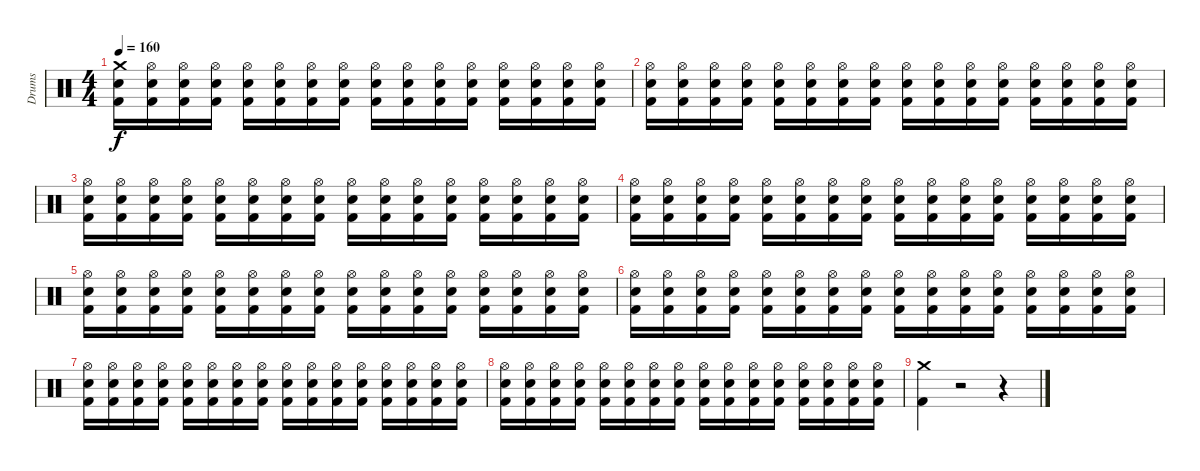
\track ("Drums" "Drums") {instrument percussion}
\staff {score}
\articulation defaults
\ts (4 4)
\tempo 160
\clef neutral
\ks c
("Crash medium (hit)" "Electric Snare (hit)" "Kick (hit) 2").16{dy f} ("Hi-Hat (open)" "Electric Snare (hit)" "Kick (hit) 2").16 ("Hi-Hat (open)" "Electric Snare (hit)" "Kick (hit) 2").16 ("Hi-Hat (open)" "Electric Snare (hit)" "Kick (hit) 2").16 ("Hi-Hat (open)" "Electric Snare (hit)" "Kick (hit) 2").16 ("Hi-Hat (open)" "Electric Snare (hit)" "Kick (hit) 2").16 ("Hi-Hat (open)" "Electric Snare (hit)" "Kick (hit) 2").16 ("Hi-Hat (open)" "Electric Snare (hit)" "Kick (hit) 2").16 ("Hi-Hat (open)" "Electric Snare (hit)" "Kick (hit) 2").16 ("Hi-Hat (open)" "Electric Snare (hit)" "Kick (hit) 2").16 ("Hi-Hat (open)" "Electric Snare (hit)" "Kick (hit) 2").16 ("Hi-Hat (open)" "Electric Snare (hit)" "Kick (hit) 2").16 ("Hi-Hat (open)" "Electric Snare (hit)" "Kick (hit) 2").16 ("Hi-Hat (open)" "Electric Snare (hit)" "Kick (hit) 2").16 ("Hi-Hat (open)" "Electric Snare (hit)" "Kick (hit) 2").16 ("Hi-Hat (open)" "Electric Snare (hit)" "Kick (hit) 2").16 |
("Hi-Hat (open)" "Electric Snare (hit)" "Kick (hit) 2").16 ("Hi-Hat (open)" "Electric Snare (hit)" "Kick (hit) 2").16 ("Hi-Hat (open)" "Electric Snare (hit)" "Kick (hit) 2").16 ("Hi-Hat (open)" "Electric Snare (hit)" "Kick (hit) 2").16 ("Hi-Hat (open)" "Electric Snare (hit)" "Kick (hit) 2").16 ("Hi-Hat (open)" "Electric Snare (hit)" "Kick (hit) 2").16 ("Hi-Hat (open)" "Electric Snare (hit)" "Kick (hit) 2").16 ("Hi-Hat (open)" "Electric Snare (hit)" "Kick (hit) 2").16 ("Hi-Hat (open)" "Electric Snare (hit)" "Kick (hit) 2").16 ("Hi-Hat (open)" "Electric Snare (hit)" "Kick (hit) 2").16 ("Hi-Hat (open)" "Electric Snare (hit)" "Kick (hit) 2").16 ("Hi-Hat (open)" "Electric Snare (hit)" "Kick (hit) 2").16 ("Hi-Hat (open)" "Electric Snare (hit)" "Kick (hit) 2").16 ("Hi-Hat (open)" "Electric Snare (hit)" "Kick (hit) 2").16 ("Hi-Hat (open)" "Electric Snare (hit)" "Kick (hit) 2").16 ("Hi-Hat (open)" "Electric Snare (hit)" "Kick (hit) 2").16 |
("Hi-Hat (open)" "Electric Snare (hit)" "Kick (hit) 2").16 ("Hi-Hat (open)" "Electric Snare (hit)" "Kick (hit) 2").16 ("Hi-Hat (open)" "Electric Snare (hit)" "Kick (hit) 2").16 ("Hi-Hat (open)" "Electric Snare (hit)" "Kick (hit) 2").16 ("Hi-Hat (open)" "Electric Snare (hit)" "Kick (hit) 2").16 ("Hi-Hat (open)" "Electric Snare (hit)" "Kick (hit) 2").16 ("Hi-Hat (open)" "Electric Snare (hit)" "Kick (hit) 2").16 ("Hi-Hat (open)" "Electric Snare (hit)" "Kick (hit) 2").16 ("Hi-Hat (open)" "Electric Snare (hit)" "Kick (hit) 2").16 ("Hi-Hat (open)" "Electric Snare (hit)" "Kick (hit) 2").16 ("Hi-Hat (open)" "Electric Snare (hit)" "Kick (hit) 2").16 ("Hi-Hat (open)" "Electric Snare (hit)" "Kick (hit) 2").16 ("Hi-Hat (open)" "Electric Snare (hit)" "Kick (hit) 2").16 ("Hi-Hat (open)" "Electric Snare (hit)" "Kick (hit) 2").16 ("Hi-Hat (open)" "Electric Snare (hit)" "Kick (hit) 2").16 ("Hi-Hat (open)" "Electric Snare (hit)" "Kick (hit) 2").16 |
("Hi-Hat (open)" "Electric Snare (hit)" "Kick (hit) 2").16 ("Hi-Hat (open)" "Electric Snare (hit)" "Kick (hit) 2").16 ("Hi-Hat (open)" "Electric Snare (hit)" "Kick (hit) 2").16 ("Hi-Hat (open)" "Electric Snare (hit)" "Kick (hit) 2").16 ("Hi-Hat (open)" "Electric Snare (hit)" "Kick (hit) 2").16 ("Hi-Hat (open)" "Electric Snare (hit)" "Kick (hit) 2").16 ("Hi-Hat (open)" "Electric Snare (hit)" "Kick (hit) 2").16 ("Hi-Hat (open)" "Electric Snare (hit)" "Kick (hit) 2").16 ("Hi-Hat (open)" "Electric Snare (hit)" "Kick (hit) 2").16 ("Hi-Hat (open)" "Electric Snare (hit)" "Kick (hit) 2").16 ("Hi-Hat (open)" "Electric Snare (hit)" "Kick (hit) 2").16 ("Hi-Hat (open)" "Electric Snare (hit)" "Kick (hit) 2").16 ("Hi-Hat (open)" "Electric Snare (hit)" "Kick (hit) 2").16 ("Hi-Hat (open)" "Electric Snare (hit)" "Kick (hit) 2").16 ("Hi-Hat (open)" "Electric Snare (hit)" "Kick (hit) 2").16 ("Hi-Hat (open)" "Electric Snare (hit)" "Kick (hit) 2").16 |
("Hi-Hat (open)" "Electric Snare (hit)" "Kick (hit) 2").16 ("Hi-Hat (open)" "Electric Snare (hit)" "Kick (hit) 2").16 ("Hi-Hat (open)" "Electric Snare (hit)" "Kick (hit) 2").16 ("Hi-Hat (open)" "Electric Snare (hit)" "Kick (hit) 2").16 ("Hi-Hat (open)" "Electric Snare (hit)" "Kick (hit) 2").16 ("Hi-Hat (open)" "Electric Snare (hit)" "Kick (hit) 2").16 ("Hi-Hat (open)" "Electric Snare (hit)" "Kick (hit) 2").16 ("Hi-Hat (open)" "Electric Snare (hit)" "Kick (hit) 2").16 ("Hi-Hat (open)" "Electric Snare (hit)" "Kick (hit) 2").16 ("Hi-Hat (open)" "Electric Snare (hit)" "Kick (hit) 2").16 ("Hi-Hat (open)" "Electric Snare (hit)" "Kick (hit) 2").16 ("Hi-Hat (open)" "Electric Snare (hit)" "Kick (hit) 2").16 ("Hi-Hat (open)" "Electric Snare (hit)" "Kick (hit) 2").16 ("Hi-Hat (open)" "Electric Snare (hit)" "Kick (hit) 2").16 ("Hi-Hat (open)" "Electric Snare (hit)" "Kick (hit) 2").16 ("Hi-Hat (open)" "Electric Snare (hit)" "Kick (hit) 2").16 |
("Hi-Hat (open)" "Electric Snare (hit)" "Kick (hit) 2").16 ("Hi-Hat (open)" "Electric Snare (hit)" "Kick (hit) 2").16 ("Hi-Hat (open)" "Electric Snare (hit)" "Kick (hit) 2").16 ("Hi-Hat (open)" "Electric Snare (hit)" "Kick (hit) 2").16 ("Hi-Hat (open)" "Electric Snare (hit)" "Kick (hit) 2").16 ("Hi-Hat (open)" "Electric Snare (hit)" "Kick (hit) 2").16 ("Hi-Hat (open)" "Electric Snare (hit)" "Kick (hit) 2").16 ("Hi-Hat (open)" "Electric Snare (hit)" "Kick (hit) 2").16 ("Hi-Hat (open)" "Electric Snare (hit)" "Kick (hit) 2").16 ("Hi-Hat (open)" "Electric Snare (hit)" "Kick (hit) 2").16 ("Hi-Hat (open)" "Electric Snare (hit)" "Kick (hit) 2").16 ("Hi-Hat (open)" "Electric Snare (hit)" "Kick (hit) 2").16 ("Hi-Hat (open)" "Electric Snare (hit)" "Kick (hit) 2").16 ("Hi-Hat (open)" "Electric Snare (hit)" "Kick (hit) 2").16 ("Hi-Hat (open)" "Electric Snare (hit)" "Kick (hit) 2").16 ("Hi-Hat (open)" "Electric Snare (hit)" "Kick (hit) 2").16 |
("Hi-Hat (open)" "Electric Snare (hit)" "Kick (hit) 2").16 ("Hi-Hat (open)" "Electric Snare (hit)" "Kick (hit) 2").16 ("Hi-Hat (open)" "Electric Snare (hit)" "Kick (hit) 2").16 ("Hi-Hat (open)" "Electric Snare (hit)" "Kick (hit) 2").16 ("Hi-Hat (open)" "Electric Snare (hit)" "Kick (hit) 2").16 ("Hi-Hat (open)" "Electric Snare (hit)" "Kick (hit) 2").16 ("Hi-Hat (open)" "Electric Snare (hit)" "Kick (hit) 2").16 ("Hi-Hat (open)" "Electric Snare (hit)" "Kick (hit) 2").16 ("Hi-Hat (open)" "Electric Snare (hit)" "Kick (hit) 2").16 ("Hi-Hat (open)" "Electric Snare (hit)" "Kick (hit) 2").16 ("Hi-Hat (open)" "Electric Snare (hit)" "Kick (hit) 2").16 ("Hi-Hat (open)" "Electric Snare (hit)" "Kick (hit) 2").16 ("Hi-Hat (open)" "Electric Snare (hit)" "Kick (hit) 2").16 ("Hi-Hat (open)" "Electric Snare (hit)" "Kick (hit) 2").16 ("Hi-Hat (open)" "Electric Snare (hit)" "Kick (hit) 2").16 ("Hi-Hat (open)" "Electric Snare (hit)" "Kick (hit) 2").16 |
("Hi-Hat (open)" "Electric Snare (hit)" "Kick (hit) 2").16 ("Hi-Hat (open)" "Electric Snare (hit)" "Kick (hit) 2").16 ("Hi-Hat (open)" "Electric Snare (hit)" "Kick (hit) 2").16 ("Hi-Hat (open)" "Electric Snare (hit)" "Kick (hit) 2").16 ("Hi-Hat (open)" "Electric Snare (hit)" "Kick (hit) 2").16 ("Hi-Hat (open)" "Electric Snare (hit)" "Kick (hit) 2").16 ("Hi-Hat (open)" "Electric Snare (hit)" "Kick (hit) 2").16 ("Hi-Hat (open)" "Electric Snare (hit)" "Kick (hit) 2").16 ("Hi-Hat (open)" "Electric Snare (hit)" "Kick (hit) 2").16 ("Hi-Hat (open)" "Electric Snare (hit)" "Kick (hit) 2").16 ("Hi-Hat (open)" "Electric Snare (hit)" "Kick (hit) 2").16 ("Hi-Hat (open)" "Electric Snare (hit)" "Kick (hit) 2").16 ("Hi-Hat (open)" "Electric Snare (hit)" "Kick (hit) 2").16 ("Hi-Hat (open)" "Electric Snare (hit)" "Kick (hit) 2").16 ("Hi-Hat (open)" "Electric Snare (hit)" "Kick (hit) 2").16 ("Hi-Hat (open)" "Electric Snare (hit)" "Kick (hit) 2").16 |
("Crash medium (hit)" "Kick (hit) 2").4 r.2 r.4
